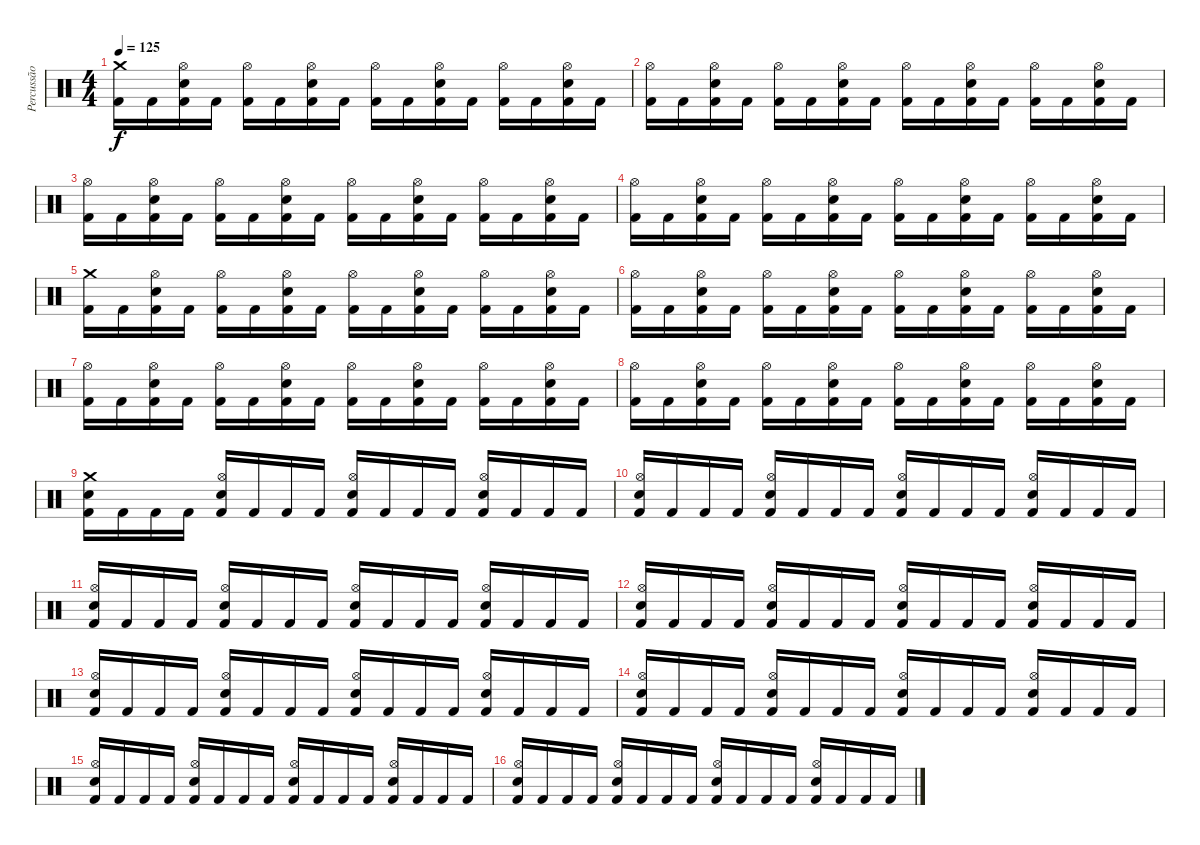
\track ("Percussão" "Percussão") {instrument percussion}
\staff {score}
\articulation defaults
\ts (4 4)
\tempo 125
\clef neutral
\ks c
("Crash medium (hit)" "Kick (hit) 2").16{dy f} "Kick (hit) 2".16 ("Hi-Hat (open)" "Electric Snare (hit)" "Kick (hit) 2").16 "Kick (hit) 2".16 ("Hi-Hat (open)" "Kick (hit) 2").16 "Kick (hit) 2".16 ("Hi-Hat (open)" "Electric Snare (hit)" "Kick (hit) 2").16 "Kick (hit) 2".16 ("Hi-Hat (open)" "Kick (hit) 2").16 "Kick (hit) 2".16 ("Hi-Hat (open)" "Electric Snare (hit)" "Kick (hit) 2").16 "Kick (hit) 2".16 ("Hi-Hat (open)" "Kick (hit) 2").16 "Kick (hit) 2".16 ("Hi-Hat (open)" "Electric Snare (hit)" "Kick (hit) 2").16 "Kick (hit) 2".16 |
("Hi-Hat (open)" "Kick (hit) 2").16 "Kick (hit) 2".16 ("Hi-Hat (open)" "Electric Snare (hit)" "Kick (hit) 2").16 "Kick (hit) 2".16 ("Hi-Hat (open)" "Kick (hit) 2").16 "Kick (hit) 2".16 ("Hi-Hat (open)" "Electric Snare (hit)" "Kick (hit) 2").16 "Kick (hit) 2".16 ("Hi-Hat (open)" "Kick (hit) 2").16 "Kick (hit) 2".16 ("Hi-Hat (open)" "Electric Snare (hit)" "Kick (hit) 2").16 "Kick (hit) 2".16 ("Hi-Hat (open)" "Kick (hit) 2").16 "Kick (hit) 2".16 ("Hi-Hat (open)" "Electric Snare (hit)" "Kick (hit) 2").16 "Kick (hit) 2".16 |
("Hi-Hat (open)" "Kick (hit) 2").16 "Kick (hit) 2".16 ("Hi-Hat (open)" "Electric Snare (hit)" "Kick (hit) 2").16 "Kick (hit) 2".16 ("Hi-Hat (open)" "Kick (hit) 2").16 "Kick (hit) 2".16 ("Hi-Hat (open)" "Electric Snare (hit)" "Kick (hit) 2").16 "Kick (hit) 2".16 ("Hi-Hat (open)" "Kick (hit) 2").16 "Kick (hit) 2".16 ("Hi-Hat (open)" "Electric Snare (hit)" "Kick (hit) 2").16 "Kick (hit) 2".16 ("Hi-Hat (open)" "Kick (hit) 2").16 "Kick (hit) 2".16 ("Hi-Hat (open)" "Electric Snare (hit)" "Kick (hit) 2").16 "Kick (hit) 2".16 |
("Hi-Hat (open)" "Kick (hit) 2").16 "Kick (hit) 2".16 ("Hi-Hat (open)" "Electric Snare (hit)" "Kick (hit) 2").16 "Kick (hit) 2".16 ("Hi-Hat (open)" "Kick (hit) 2").16 "Kick (hit) 2".16 ("Hi-Hat (open)" "Electric Snare (hit)" "Kick (hit) 2").16 "Kick (hit) 2".16 ("Hi-Hat (open)" "Kick (hit) 2").16 "Kick (hit) 2".16 ("Hi-Hat (open)" "Electric Snare (hit)" "Kick (hit) 2").16 "Kick (hit) 2".16 ("Hi-Hat (open)" "Kick (hit) 2").16 "Kick (hit) 2".16 ("Hi-Hat (open)" "Electric Snare (hit)" "Kick (hit) 2").16 "Kick (hit) 2".16 |
("Crash medium (hit)" "Kick (hit) 2").16 "Kick (hit) 2".16 ("Hi-Hat (open)" "Electric Snare (hit)" "Kick (hit) 2").16 "Kick (hit) 2".16 ("Hi-Hat (open)" "Kick (hit) 2").16 "Kick (hit) 2".16 ("Hi-Hat (open)" "Electric Snare (hit)" "Kick (hit) 2").16 "Kick (hit) 2".16 ("Hi-Hat (open)" "Kick (hit) 2").16 "Kick (hit) 2".16 ("Hi-Hat (open)" "Electric Snare (hit)" "Kick (hit) 2").16 "Kick (hit) 2".16 ("Hi-Hat (open)" "Kick (hit) 2").16 "Kick (hit) 2".16 ("Hi-Hat (open)" "Electric Snare (hit)" "Kick (hit) 2").16 "Kick (hit) 2".16 |
("Hi-Hat (open)" "Kick (hit) 2").16 "Kick (hit) 2".16 ("Hi-Hat (open)" "Electric Snare (hit)" "Kick (hit) 2").16 "Kick (hit) 2".16 ("Hi-Hat (open)" "Kick (hit) 2").16 "Kick (hit) 2".16 ("Hi-Hat (open)" "Electric Snare (hit)" "Kick (hit) 2").16 "Kick (hit) 2".16 ("Hi-Hat (open)" "Kick (hit) 2").16 "Kick (hit) 2".16 ("Hi-Hat (open)" "Electric Snare (hit)" "Kick (hit) 2").16 "Kick (hit) 2".16 ("Hi-Hat (open)" "Kick (hit) 2").16 "Kick (hit) 2".16 ("Hi-Hat (open)" "Electric Snare (hit)" "Kick (hit) 2").16 "Kick (hit) 2".16 |
("Hi-Hat (open)" "Kick (hit) 2").16 "Kick (hit) 2".16 ("Hi-Hat (open)" "Electric Snare (hit)" "Kick (hit) 2").16 "Kick (hit) 2".16 ("Hi-Hat (open)" "Kick (hit) 2").16 "Kick (hit) 2".16 ("Hi-Hat (open)" "Electric Snare (hit)" "Kick (hit) 2").16 "Kick (hit) 2".16 ("Hi-Hat (open)" "Kick (hit) 2").16 "Kick (hit) 2".16 ("Hi-Hat (open)" "Electric Snare (hit)" "Kick (hit) 2").16 "Kick (hit) 2".16 ("Hi-Hat (open)" "Kick (hit) 2").16 "Kick (hit) 2".16 ("Hi-Hat (open)" "Electric Snare (hit)" "Kick (hit) 2").16 "Kick (hit) 2".16 |
("Hi-Hat (open)" "Kick (hit) 2").16 "Kick (hit) 2".16 ("Hi-Hat (open)" "Electric Snare (hit)" "Kick (hit) 2").16 "Kick (hit) 2".16 ("Hi-Hat (open)" "Kick (hit) 2").16 "Kick (hit) 2".16 ("Hi-Hat (open)" "Electric Snare (hit)" "Kick (hit) 2").16 "Kick (hit) 2".16 ("Hi-Hat (open)" "Kick (hit) 2").16 "Kick (hit) 2".16 ("Hi-Hat (open)" "Electric Snare (hit)" "Kick (hit) 2").16 "Kick (hit) 2".16 ("Hi-Hat (open)" "Kick (hit) 2").16 "Kick (hit) 2".16 ("Hi-Hat (open)" "Electric Snare (hit)" "Kick (hit) 2").16 "Kick (hit) 2".16 |
("Crash medium (hit)" "Electric Snare (hit)" "Kick (hit) 2").16 "Kick (hit) 2".16 "Kick (hit) 2".16 "Kick (hit) 2".16 ("Hi-Hat (open)" "Electric Snare (hit)" "Kick (hit) 2").16 "Kick (hit) 2".16 "Kick (hit) 2".16 "Kick (hit) 2".16 ("Hi-Hat (open)" "Electric Snare (hit)" "Kick (hit) 2").16 "Kick (hit) 2".16 "Kick (hit) 2".16 "Kick (hit) 2".16 ("Hi-Hat (open)" "Electric Snare (hit)" "Kick (hit) 2").16 "Kick (hit) 2".16 "Kick (hit) 2".16 "Kick (hit) 2".16 |
("Hi-Hat (open)" "Electric Snare (hit)" "Kick (hit) 2").16 "Kick (hit) 2".16 "Kick (hit) 2".16 "Kick (hit) 2".16 ("Hi-Hat (open)" "Electric Snare (hit)" "Kick (hit) 2").16 "Kick (hit) 2".16 "Kick (hit) 2".16 "Kick (hit) 2".16 ("Hi-Hat (open)" "Electric Snare (hit)" "Kick (hit) 2").16 "Kick (hit) 2".16 "Kick (hit) 2".16 "Kick (hit) 2".16 ("Hi-Hat (open)" "Electric Snare (hit)" "Kick (hit) 2").16 "Kick (hit) 2".16 "Kick (hit) 2".16 "Kick (hit) 2".16 |
("Hi-Hat (open)" "Electric Snare (hit)" "Kick (hit) 2").16 "Kick (hit) 2".16 "Kick (hit) 2".16 "Kick (hit) 2".16 ("Hi-Hat (open)" "Electric Snare (hit)" "Kick (hit) 2").16 "Kick (hit) 2".16 "Kick (hit) 2".16 "Kick (hit) 2".16 ("Hi-Hat (open)" "Electric Snare (hit)" "Kick (hit) 2").16 "Kick (hit) 2".16 "Kick (hit) 2".16 "Kick (hit) 2".16 ("Hi-Hat (open)" "Electric Snare (hit)" "Kick (hit) 2").16 "Kick (hit) 2".16 "Kick (hit) 2".16 "Kick (hit) 2".16 |
("Hi-Hat (open)" "Electric Snare (hit)" "Kick (hit) 2").16 "Kick (hit) 2".16 "Kick (hit) 2".16 "Kick (hit) 2".16 ("Hi-Hat (open)" "Electric Snare (hit)" "Kick (hit) 2").16 "Kick (hit) 2".16 "Kick (hit) 2".16 "Kick (hit) 2".16 ("Hi-Hat (open)" "Electric Snare (hit)" "Kick (hit) 2").16 "Kick (hit) 2".16 "Kick (hit) 2".16 "Kick (hit) 2".16 ("Hi-Hat (open)" "Electric Snare (hit)" "Kick (hit) 2").16 "Kick (hit) 2".16 "Kick (hit) 2".16 "Kick (hit) 2".16 |
("Hi-Hat (open)" "Electric Snare (hit)" "Kick (hit) 2").16 "Kick (hit) 2".16 "Kick (hit) 2".16 "Kick (hit) 2".16 ("Hi-Hat (open)" "Electric Snare (hit)" "Kick (hit) 2").16 "Kick (hit) 2".16 "Kick (hit) 2".16 "Kick (hit) 2".16 ("Hi-Hat (open)" "Electric Snare (hit)" "Kick (hit) 2").16 "Kick (hit) 2".16 "Kick (hit) 2".16 "Kick (hit) 2".16 ("Hi-Hat (open)" "Electric Snare (hit)" "Kick (hit) 2").16 "Kick (hit) 2".16 "Kick (hit) 2".16 "Kick (hit) 2".16 |
("Hi-Hat (open)" "Electric Snare (hit)" "Kick (hit) 2").16 "Kick (hit) 2".16 "Kick (hit) 2".16 "Kick (hit) 2".16 ("Hi-Hat (open)" "Electric Snare (hit)" "Kick (hit) 2").16 "Kick (hit) 2".16 "Kick (hit) 2".16 "Kick (hit) 2".16 ("Hi-Hat (open)" "Electric Snare (hit)" "Kick (hit) 2").16 "Kick (hit) 2".16 "Kick (hit) 2".16 "Kick (hit) 2".16 ("Hi-Hat (open)" "Electric Snare (hit)" "Kick (hit) 2").16 "Kick (hit) 2".16 "Kick (hit) 2".16 "Kick (hit) 2".16 |
("Hi-Hat (open)" "Electric Snare (hit)" "Kick (hit) 2").16 "Kick (hit) 2".16 "Kick (hit) 2".16 "Kick (hit) 2".16 ("Hi-Hat (open)" "Electric Snare (hit)" "Kick (hit) 2").16 "Kick (hit) 2".16 "Kick (hit) 2".16 "Kick (hit) 2".16 ("Hi-Hat (open)" "Electric Snare (hit)" "Kick (hit) 2").16 "Kick (hit) 2".16 "Kick (hit) 2".16 "Kick (hit) 2".16 ("Hi-Hat (open)" "Electric Snare (hit)" "Kick (hit) 2").16 "Kick (hit) 2".16 "Kick (hit) 2".16 "Kick (hit) 2".16 |
("Hi-Hat (open)" "Electric Snare (hit)" "Kick (hit) 2").16 "Kick (hit) 2".16 "Kick (hit) 2".16 "Kick (hit) 2".16 ("Hi-Hat (open)" "Electric Snare (hit)" "Kick (hit) 2").16 "Kick (hit) 2".16 "Kick (hit) 2".16 "Kick (hit) 2".16 ("Hi-Hat (open)" "Electric Snare (hit)" "Kick (hit) 2").16 "Kick (hit) 2".16 "Kick (hit) 2".16 "Kick (hit) 2".16 ("Hi-Hat (open)" "Electric Snare (hit)" "Kick (hit) 2").16 "Kick (hit) 2".16 "Kick (hit) 2".16 "Kick (hit) 2".16
